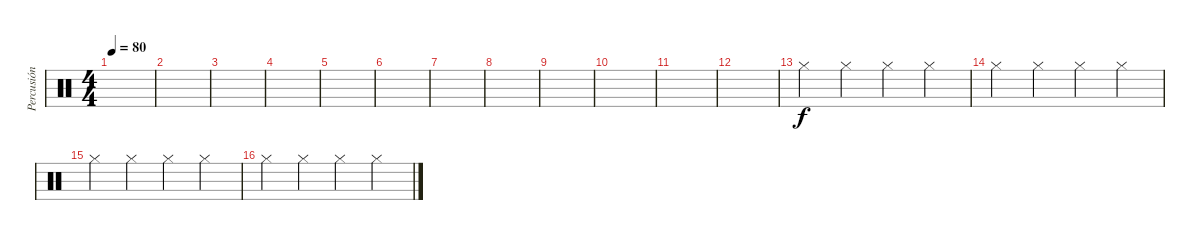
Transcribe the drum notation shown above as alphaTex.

\track ("Percusión" "Percusión") {instrument percussion}
\staff {score}
\articulation defaults
\ts (4 4)
\tempo 80
\clef neutral
\ks c
|
|
|
|
|
|
|
|
|
|
|
|
"Hi-Hat (closed)".4 "Hi-Hat (closed)".4 "Hi-Hat (closed)".4 "Hi-Hat (closed)".4 |
"Hi-Hat (closed)".4 "Hi-Hat (closed)".4 "Hi-Hat (closed)".4 "Hi-Hat (closed)".4 |
"Hi-Hat (closed)".4 "Hi-Hat (closed)".4 "Hi-Hat (closed)".4 "Hi-Hat (closed)".4 |
"Hi-Hat (closed)".4 "Hi-Hat (closed)".4 "Hi-Hat (closed)".4 "Hi-Hat (closed)".4
